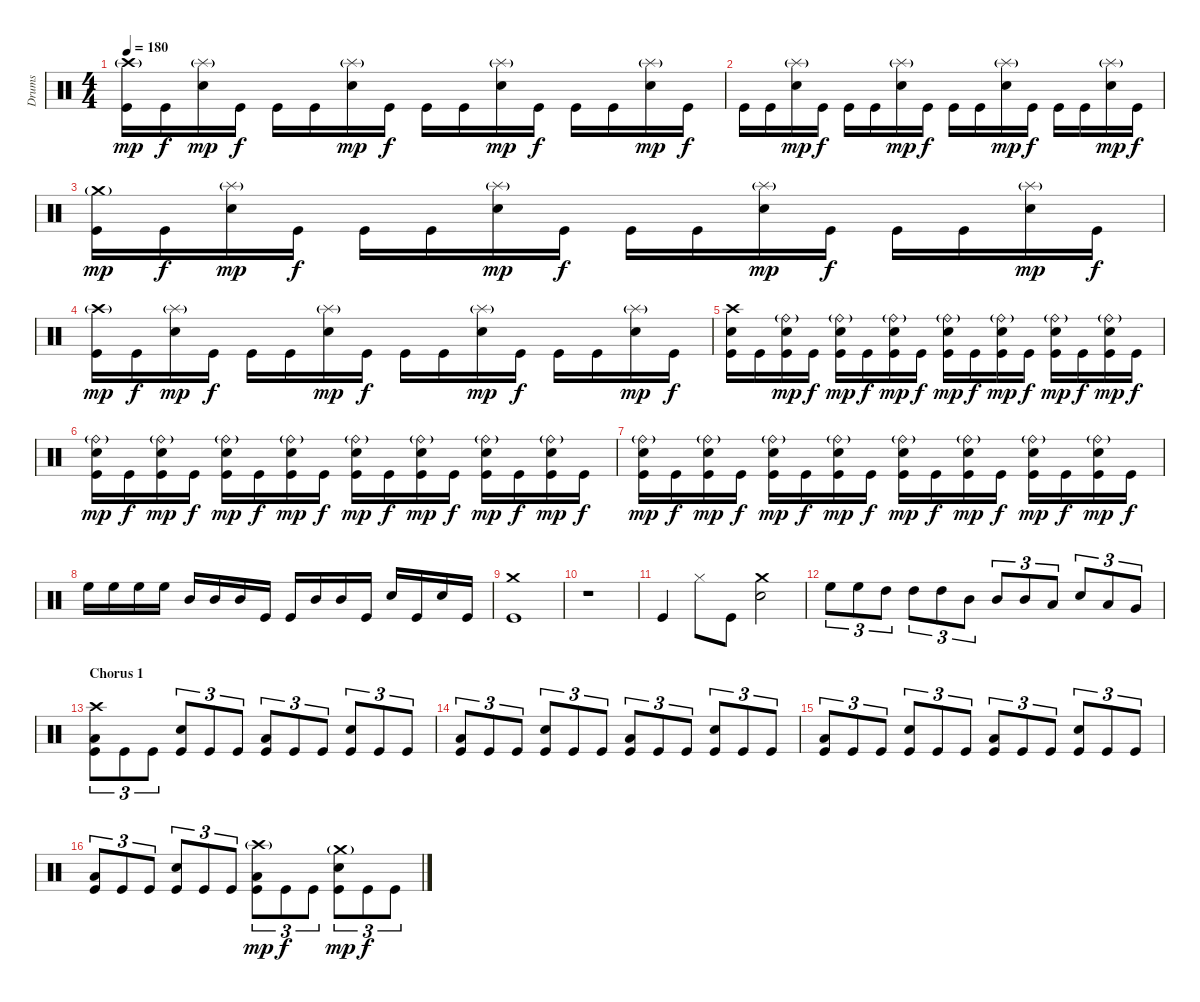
\track ("Drums" "Drums") {instrument percussion}
\staff {score}
\articulation defaults
\ts (4 4)
\tempo 180
\clef neutral
\ks c
("Crash high (hit)"{g} "Kick (hit)").16{dy mp} "Kick (hit)".16{dy f} ("Splash (hit)"{g} "Snare (hit) 2").16{dy mp} "Kick (hit)".16{dy f} "Kick (hit)".16 "Kick (hit)".16 ("Splash (hit)"{g} "Snare (hit) 2").16{dy mp} "Kick (hit)".16{dy f} "Kick (hit)".16 "Kick (hit)".16 ("Splash (hit)"{g} "Snare (hit) 2").16{dy mp} "Kick (hit)".16{dy f} "Kick (hit)".16 "Kick (hit)".16 ("Splash (hit)"{g} "Snare (hit) 2").16{dy mp} "Kick (hit)".16{dy f} |
"Kick (hit)".16 "Kick (hit)".16 ("Splash (hit)"{g} "Snare (hit) 2").16{dy mp} "Kick (hit)".16{dy f} "Kick (hit)".16 "Kick (hit)".16 ("Splash (hit)"{g} "Snare (hit) 2").16{dy mp} "Kick (hit)".16{dy f} "Kick (hit)".16 "Kick (hit)".16 ("Splash (hit)"{g} "Snare (hit) 2").16{dy mp} "Kick (hit)".16{dy f} "Kick (hit)".16 "Kick (hit)".16 ("Splash (hit)"{g} "Snare (hit) 2").16{dy mp} "Kick (hit)".16{dy f} |
("Crash medium (hit)"{g} "Kick (hit)").16{dy mp} "Kick (hit)".16{dy f} ("Splash (hit)"{g} "Snare (hit) 2").16{dy mp} "Kick (hit)".16{dy f} "Kick (hit)".16 "Kick (hit)".16 ("Splash (hit)"{g} "Snare (hit) 2").16{dy mp} "Kick (hit)".16{dy f} "Kick (hit)".16 "Kick (hit)".16 ("Splash (hit)"{g} "Snare (hit) 2").16{dy mp} "Kick (hit)".16{dy f} "Kick (hit)".16 "Kick (hit)".16 ("Splash (hit)"{g} "Snare (hit) 2").16{dy mp} "Kick (hit)".16{dy f} |
("Crash high (hit)"{g} "Kick (hit)").16{dy mp} "Kick (hit)".16{dy f} ("Splash (hit)"{g} "Snare (hit) 2").16{dy mp} "Kick (hit)".16{dy f} "Kick (hit)".16 "Kick (hit)".16 ("Splash (hit)"{g} "Snare (hit) 2").16{dy mp} "Kick (hit)".16{dy f} "Kick (hit)".16 "Kick (hit)".16 ("Splash (hit)"{g} "Snare (hit) 2").16{dy mp} "Kick (hit)".16{dy f} "Kick (hit)".16 "Kick (hit)".16 ("Splash (hit)"{g} "Snare (hit) 2").16{dy mp} "Kick (hit)".16{dy f} |
("Crash high (hit)" "Electric Snare (hit)" "Kick (hit)").16 "Kick (hit)".16 ("Ride (bell)"{g} "Electric Snare (hit)" "Kick (hit)").16{dy mp} "Kick (hit)".16{dy f} ("Ride (bell)"{g} "Electric Snare (hit)" "Kick (hit)").16{dy mp} "Kick (hit)".16{dy f} ("Ride (bell)"{g} "Electric Snare (hit)" "Kick (hit)").16{dy mp} "Kick (hit)".16{dy f} ("Ride (bell)"{g} "Electric Snare (hit)" "Kick (hit)").16{dy mp} "Kick (hit)".16{dy f} ("Ride (bell)"{g} "Electric Snare (hit)" "Kick (hit)").16{dy mp} "Kick (hit)".16{dy f} ("Ride (bell)"{g} "Electric Snare (hit)" "Kick (hit)").16{dy mp} "Kick (hit)".16{dy f} ("Ride (bell)"{g} "Electric Snare (hit)" "Kick (hit)").16{dy mp} "Kick (hit)".16{dy f} |
("Ride (bell)"{g} "Electric Snare (hit)" "Kick (hit)").16{dy mp} "Kick (hit)".16{dy f} ("Ride (bell)"{g} "Electric Snare (hit)" "Kick (hit)").16{dy mp} "Kick (hit)".16{dy f} ("Ride (bell)"{g} "Electric Snare (hit)" "Kick (hit)").16{dy mp} "Kick (hit)".16{dy f} ("Ride (bell)"{g} "Electric Snare (hit)" "Kick (hit)").16{dy mp} "Kick (hit)".16{dy f} ("Ride (bell)"{g} "Electric Snare (hit)" "Kick (hit)").16{dy mp} "Kick (hit)".16{dy f} ("Ride (bell)"{g} "Electric Snare (hit)" "Kick (hit)").16{dy mp} "Kick (hit)".16{dy f} ("Ride (bell)"{g} "Electric Snare (hit)" "Kick (hit)").16{dy mp} "Kick (hit)".16{dy f} ("Ride (bell)"{g} "Electric Snare (hit)" "Kick (hit)").16{dy mp} "Kick (hit)".16{dy f} |
("Ride (bell)"{g} "Electric Snare (hit)" "Kick (hit)").16{dy mp} "Kick (hit)".16{dy f} ("Ride (bell)"{g} "Electric Snare (hit)" "Kick (hit)").16{dy mp} "Kick (hit)".16{dy f} ("Ride (bell)"{g} "Electric Snare (hit)" "Kick (hit)").16{dy mp} "Kick (hit)".16{dy f} ("Ride (bell)"{g} "Electric Snare (hit)" "Kick (hit)").16{dy mp} "Kick (hit)".16{dy f} ("Ride (bell)"{g} "Electric Snare (hit)" "Kick (hit)").16{dy mp} "Kick (hit)".16{dy f} ("Ride (bell)"{g} "Electric Snare (hit)" "Kick (hit)").16{dy mp} "Kick (hit)".16{dy f} ("Ride (bell)"{g} "Electric Snare (hit)" "Kick (hit)").16{dy mp} "Kick (hit)".16{dy f} ("Ride (bell)"{g} "Electric Snare (hit)" "Kick (hit)").16{dy mp} "Kick (hit)".16{dy f} |
"High Floor Tom (hit)".16 "High Floor Tom (hit)".16 "High Floor Tom (hit)".16 "High Floor Tom (hit)".16 "Mid Tom (hit)".16 "Mid Tom (hit)".16 "Mid Tom (hit)".16 "Kick (hit)".16 "Kick (hit)".16 "Mid Tom (hit)".16 "Mid Tom (hit)".16 "Kick (hit)".16 "Snare (hit) 2".16 "Kick (hit)".16 "Snare (hit) 2".16 "Kick (hit)".16 |
("Crash medium (hit)" "Kick (hit)").1 |
r.1 |
"Kick (hit)".4 "Hi-Hat (closed)".8 "Kick (hit)".8 ("Crash medium (hit)" "Snare (hit) 2").2 |
"High Floor Tom (hit)".8{tu (3 2)} "High Floor Tom (hit)".8{tu (3 2)} "High Tom (hit)".8{tu (3 2)} "High Tom (hit)".8{tu (3 2)} "High Tom (hit)".8{tu (3 2)} "Mid Tom (hit)".8{tu (3 2)} "Mid Tom (hit)".8{tu (3 2)} "Mid Tom (hit)".8{tu (3 2)} "Low Tom (hit)".8{tu (3 2)} "Snare (hit) 2".8{tu (3 2)} "Low Tom (hit)".8{tu (3 2)} "Very Low Tom (hit)".8{tu (3 2)} |
\section ("" "Chorus 1")
("Crash high (hit)" "Low Tom (hit)" "Kick (hit)").8{tu (3 2)} "Kick (hit)".8{tu (3 2)} "Kick (hit)".8{tu (3 2)} ("Snare (hit) 2" "Kick (hit)").8{tu (3 2)} "Kick (hit)".8{tu (3 2)} "Kick (hit)".8{tu (3 2)} ("Low Tom (hit)" "Kick (hit)").8{tu (3 2)} "Kick (hit)".8{tu (3 2)} "Kick (hit)".8{tu (3 2)} ("Snare (hit) 2" "Kick (hit)").8{tu (3 2)} "Kick (hit)".8{tu (3 2)} "Kick (hit)".8{tu (3 2)} |
("Low Tom (hit)" "Kick (hit)").8{tu (3 2)} "Kick (hit)".8{tu (3 2)} "Kick (hit)".8{tu (3 2)} ("Snare (hit) 2" "Kick (hit)").8{tu (3 2)} "Kick (hit)".8{tu (3 2)} "Kick (hit)".8{tu (3 2)} ("Low Tom (hit)" "Kick (hit)").8{tu (3 2)} "Kick (hit)".8{tu (3 2)} "Kick (hit)".8{tu (3 2)} ("Snare (hit) 2" "Kick (hit)").8{tu (3 2)} "Kick (hit)".8{tu (3 2)} "Kick (hit)".8{tu (3 2)} |
("Low Tom (hit)" "Kick (hit)").8{tu (3 2)} "Kick (hit)".8{tu (3 2)} "Kick (hit)".8{tu (3 2)} ("Snare (hit) 2" "Kick (hit)").8{tu (3 2)} "Kick (hit)".8{tu (3 2)} "Kick (hit)".8{tu (3 2)} ("Low Tom (hit)" "Kick (hit)").8{tu (3 2)} "Kick (hit)".8{tu (3 2)} "Kick (hit)".8{tu (3 2)} ("Snare (hit) 2" "Kick (hit)").8{tu (3 2)} "Kick (hit)".8{tu (3 2)} "Kick (hit)".8{tu (3 2)} |
("Low Tom (hit)" "Kick (hit)").8{tu (3 2)} "Kick (hit)".8{tu (3 2)} "Kick (hit)".8{tu (3 2)} ("Snare (hit) 2" "Kick (hit)").8{tu (3 2)} "Kick (hit)".8{tu (3 2)} "Kick (hit)".8{tu (3 2)} ("Crash high (hit)"{g} "Low Tom (hit)" "Kick (hit)").8{tu (3 2) dy mp} "Kick (hit)".8{tu (3 2) dy f} "Kick (hit)".8{tu (3 2)} ("Crash medium (hit)"{g} "Snare (hit) 2" "Kick (hit)").8{tu (3 2) dy mp} "Kick (hit)".8{tu (3 2) dy f} "Kick (hit)".8{tu (3 2)}
